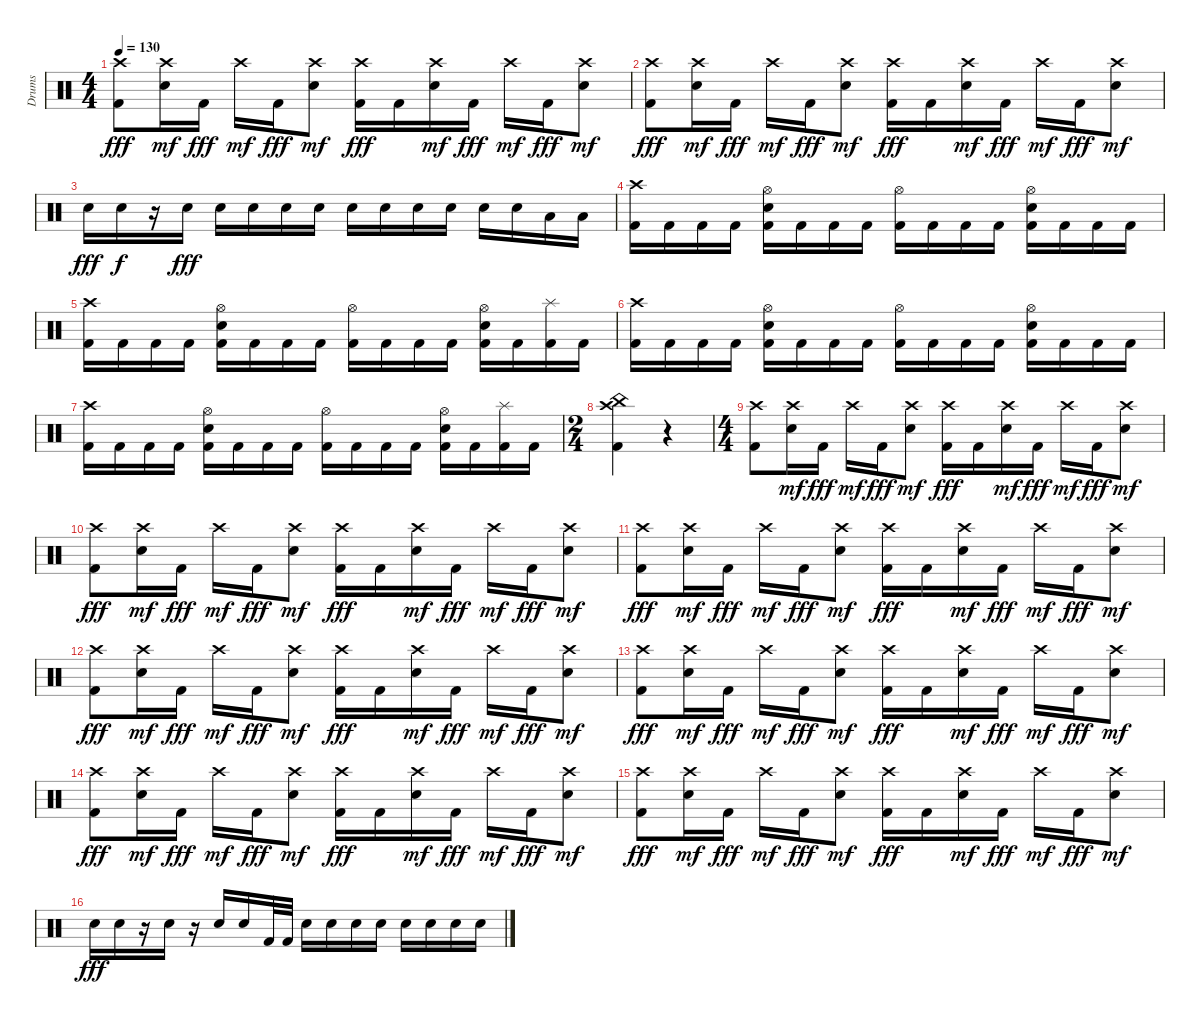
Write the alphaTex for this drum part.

\track ("Drums" "Drums") {instrument percussion}
\staff {score}
\articulation defaults
\ts (4 4)
\tempo 130
\clef neutral
\ks c
("Crash high (hit)" "Kick (hit) 2").8{dy fff} ("Crash high (hit)" "Electric Snare (hit)").16{dy mf} "Kick (hit) 2".16{dy fff} "Crash high (hit)".16{dy mf} "Kick (hit) 2".16{dy fff} ("Crash high (hit)" "Electric Snare (hit)").8{dy mf} ("Crash high (hit)" "Kick (hit) 2").16{dy fff} "Kick (hit) 2".16 ("Crash high (hit)" "Electric Snare (hit)").16{dy mf} "Kick (hit) 2".16{dy fff} "Crash high (hit)".16{dy mf} "Kick (hit) 2".16{dy fff} ("Crash high (hit)" "Electric Snare (hit)").8{dy mf} |
("Crash high (hit)" "Kick (hit) 2").8{dy fff} ("Crash high (hit)" "Electric Snare (hit)").16{dy mf} "Kick (hit) 2".16{dy fff} "Crash high (hit)".16{dy mf} "Kick (hit) 2".16{dy fff} ("Crash high (hit)" "Electric Snare (hit)").8{dy mf} ("Crash high (hit)" "Kick (hit) 2").16{dy fff} "Kick (hit) 2".16 ("Crash high (hit)" "Electric Snare (hit)").16{dy mf} "Kick (hit) 2".16{dy fff} "Crash high (hit)".16{dy mf} "Kick (hit) 2".16{dy fff} ("Crash high (hit)" "Electric Snare (hit)").8{dy mf} |
"Electric Snare (hit)".16{dy fff} "Electric Snare (hit)".16{dy f} r.16 "Electric Snare (hit)".16{dy fff} "Electric Snare (hit)".16 "Electric Snare (hit)".16 "Electric Snare (hit)".16 "Electric Snare (hit)".16 "Electric Snare (hit)".16 "Electric Snare (hit)".16 "Electric Snare (hit)".16 "Electric Snare (hit)".16 "Electric Snare (hit)".16 "Electric Snare (hit)".16 "Low Tom (hit)".16 "Low Tom (hit)".16 |
("Crash high (hit)" "Kick (hit) 2").16 "Kick (hit) 2".16 "Kick (hit) 2".16 "Kick (hit) 2".16 ("Hi-Hat (open)" "Electric Snare (hit)" "Kick (hit) 2").16 "Kick (hit) 2".16 "Kick (hit) 2".16 "Kick (hit) 2".16 ("Hi-Hat (open)" "Kick (hit) 2").16 "Kick (hit) 2".16 "Kick (hit) 2".16 "Kick (hit) 2".16 ("Hi-Hat (open)" "Electric Snare (hit)" "Kick (hit) 2").16 "Kick (hit) 2".16 "Kick (hit) 2".16 "Kick (hit) 2".16 |
("Crash high (hit)" "Kick (hit) 2").16 "Kick (hit) 2".16 "Kick (hit) 2".16 "Kick (hit) 2".16 ("Hi-Hat (open)" "Electric Snare (hit)" "Kick (hit) 2").16 "Kick (hit) 2".16 "Kick (hit) 2".16 "Kick (hit) 2".16 ("Hi-Hat (open)" "Kick (hit) 2").16 "Kick (hit) 2".16 "Kick (hit) 2".16 "Kick (hit) 2".16 ("Hi-Hat (open)" "Electric Snare (hit)" "Kick (hit) 2").16 "Kick (hit) 2".16 ("Splash (hit)" "Kick (hit) 2").16 "Kick (hit) 2".16 |
("Crash high (hit)" "Kick (hit) 2").16 "Kick (hit) 2".16 "Kick (hit) 2".16 "Kick (hit) 2".16 ("Hi-Hat (open)" "Electric Snare (hit)" "Kick (hit) 2").16 "Kick (hit) 2".16 "Kick (hit) 2".16 "Kick (hit) 2".16 ("Hi-Hat (open)" "Kick (hit) 2").16 "Kick (hit) 2".16 "Kick (hit) 2".16 "Kick (hit) 2".16 ("Hi-Hat (open)" "Electric Snare (hit)" "Kick (hit) 2").16 "Kick (hit) 2".16 "Kick (hit) 2".16 "Kick (hit) 2".16 |
("Crash high (hit)" "Kick (hit) 2").16 "Kick (hit) 2".16 "Kick (hit) 2".16 "Kick (hit) 2".16 ("Hi-Hat (open)" "Electric Snare (hit)" "Kick (hit) 2").16 "Kick (hit) 2".16 "Kick (hit) 2".16 "Kick (hit) 2".16 ("Hi-Hat (open)" "Kick (hit) 2").16 "Kick (hit) 2".16 "Kick (hit) 2".16 "Kick (hit) 2".16 ("Hi-Hat (open)" "Electric Snare (hit)" "Kick (hit) 2").16 "Kick (hit) 2".16 ("Splash (hit)" "Kick (hit) 2").16 "Kick (hit) 2".16 |
\ts (2 4)
("China (hit)" "Crash high (hit)" "Kick (hit) 2").4 r.4 |
\ts (4 4)
("Crash high (hit)" "Kick (hit) 2").8 ("Crash high (hit)" "Electric Snare (hit)").16{dy mf} "Kick (hit) 2".16{dy fff} "Crash high (hit)".16{dy mf} "Kick (hit) 2".16{dy fff} ("Crash high (hit)" "Electric Snare (hit)").8{dy mf} ("Crash high (hit)" "Kick (hit) 2").16{dy fff} "Kick (hit) 2".16 ("Crash high (hit)" "Electric Snare (hit)").16{dy mf} "Kick (hit) 2".16{dy fff} "Crash high (hit)".16{dy mf} "Kick (hit) 2".16{dy fff} ("Crash high (hit)" "Electric Snare (hit)").8{dy mf} |
("Crash high (hit)" "Kick (hit) 2").8{dy fff} ("Crash high (hit)" "Electric Snare (hit)").16{dy mf} "Kick (hit) 2".16{dy fff} "Crash high (hit)".16{dy mf} "Kick (hit) 2".16{dy fff} ("Crash high (hit)" "Electric Snare (hit)").8{dy mf} ("Crash high (hit)" "Kick (hit) 2").16{dy fff} "Kick (hit) 2".16 ("Crash high (hit)" "Electric Snare (hit)").16{dy mf} "Kick (hit) 2".16{dy fff} "Crash high (hit)".16{dy mf} "Kick (hit) 2".16{dy fff} ("Crash high (hit)" "Electric Snare (hit)").8{dy mf} |
("Crash high (hit)" "Kick (hit) 2").8{dy fff} ("Crash high (hit)" "Electric Snare (hit)").16{dy mf} "Kick (hit) 2".16{dy fff} "Crash high (hit)".16{dy mf} "Kick (hit) 2".16{dy fff} ("Crash high (hit)" "Electric Snare (hit)").8{dy mf} ("Crash high (hit)" "Kick (hit) 2").16{dy fff} "Kick (hit) 2".16 ("Crash high (hit)" "Electric Snare (hit)").16{dy mf} "Kick (hit) 2".16{dy fff} "Crash high (hit)".16{dy mf} "Kick (hit) 2".16{dy fff} ("Crash high (hit)" "Electric Snare (hit)").8{dy mf} |
("Crash high (hit)" "Kick (hit) 2").8{dy fff} ("Crash high (hit)" "Electric Snare (hit)").16{dy mf} "Kick (hit) 2".16{dy fff} "Crash high (hit)".16{dy mf} "Kick (hit) 2".16{dy fff} ("Crash high (hit)" "Electric Snare (hit)").8{dy mf} ("Crash high (hit)" "Kick (hit) 2").16{dy fff} "Kick (hit) 2".16 ("Crash high (hit)" "Electric Snare (hit)").16{dy mf} "Kick (hit) 2".16{dy fff} "Crash high (hit)".16{dy mf} "Kick (hit) 2".16{dy fff} ("Crash high (hit)" "Electric Snare (hit)").8{dy mf} |
("Crash high (hit)" "Kick (hit) 2").8{dy fff} ("Crash high (hit)" "Electric Snare (hit)").16{dy mf} "Kick (hit) 2".16{dy fff} "Crash high (hit)".16{dy mf} "Kick (hit) 2".16{dy fff} ("Crash high (hit)" "Electric Snare (hit)").8{dy mf} ("Crash high (hit)" "Kick (hit) 2").16{dy fff} "Kick (hit) 2".16 ("Crash high (hit)" "Electric Snare (hit)").16{dy mf} "Kick (hit) 2".16{dy fff} "Crash high (hit)".16{dy mf} "Kick (hit) 2".16{dy fff} ("Crash high (hit)" "Electric Snare (hit)").8{dy mf} |
("Crash high (hit)" "Kick (hit) 2").8{dy fff} ("Crash high (hit)" "Electric Snare (hit)").16{dy mf} "Kick (hit) 2".16{dy fff} "Crash high (hit)".16{dy mf} "Kick (hit) 2".16{dy fff} ("Crash high (hit)" "Electric Snare (hit)").8{dy mf} ("Crash high (hit)" "Kick (hit) 2").16{dy fff} "Kick (hit) 2".16 ("Crash high (hit)" "Electric Snare (hit)").16{dy mf} "Kick (hit) 2".16{dy fff} "Crash high (hit)".16{dy mf} "Kick (hit) 2".16{dy fff} ("Crash high (hit)" "Electric Snare (hit)").8{dy mf} |
("Crash high (hit)" "Kick (hit) 2").8{dy fff} ("Crash high (hit)" "Electric Snare (hit)").16{dy mf} "Kick (hit) 2".16{dy fff} "Crash high (hit)".16{dy mf} "Kick (hit) 2".16{dy fff} ("Crash high (hit)" "Electric Snare (hit)").8{dy mf} ("Crash high (hit)" "Kick (hit) 2").16{dy fff} "Kick (hit) 2".16 ("Crash high (hit)" "Electric Snare (hit)").16{dy mf} "Kick (hit) 2".16{dy fff} "Crash high (hit)".16{dy mf} "Kick (hit) 2".16{dy fff} ("Crash high (hit)" "Electric Snare (hit)").8{dy mf} |
"Electric Snare (hit)".16{dy fff} "Electric Snare (hit)".16 r.16 "Electric Snare (hit)".16 r.16 "Electric Snare (hit)".16 "Electric Snare (hit)".16 "Kick (hit) 2".32 "Kick (hit) 2".32 "Electric Snare (hit)".16 "Electric Snare (hit)".16 "Electric Snare (hit)".16 "Electric Snare (hit)".16 "Electric Snare (hit)".16 "Electric Snare (hit)".16 "Electric Snare (hit)".16 "Electric Snare (hit)".16
